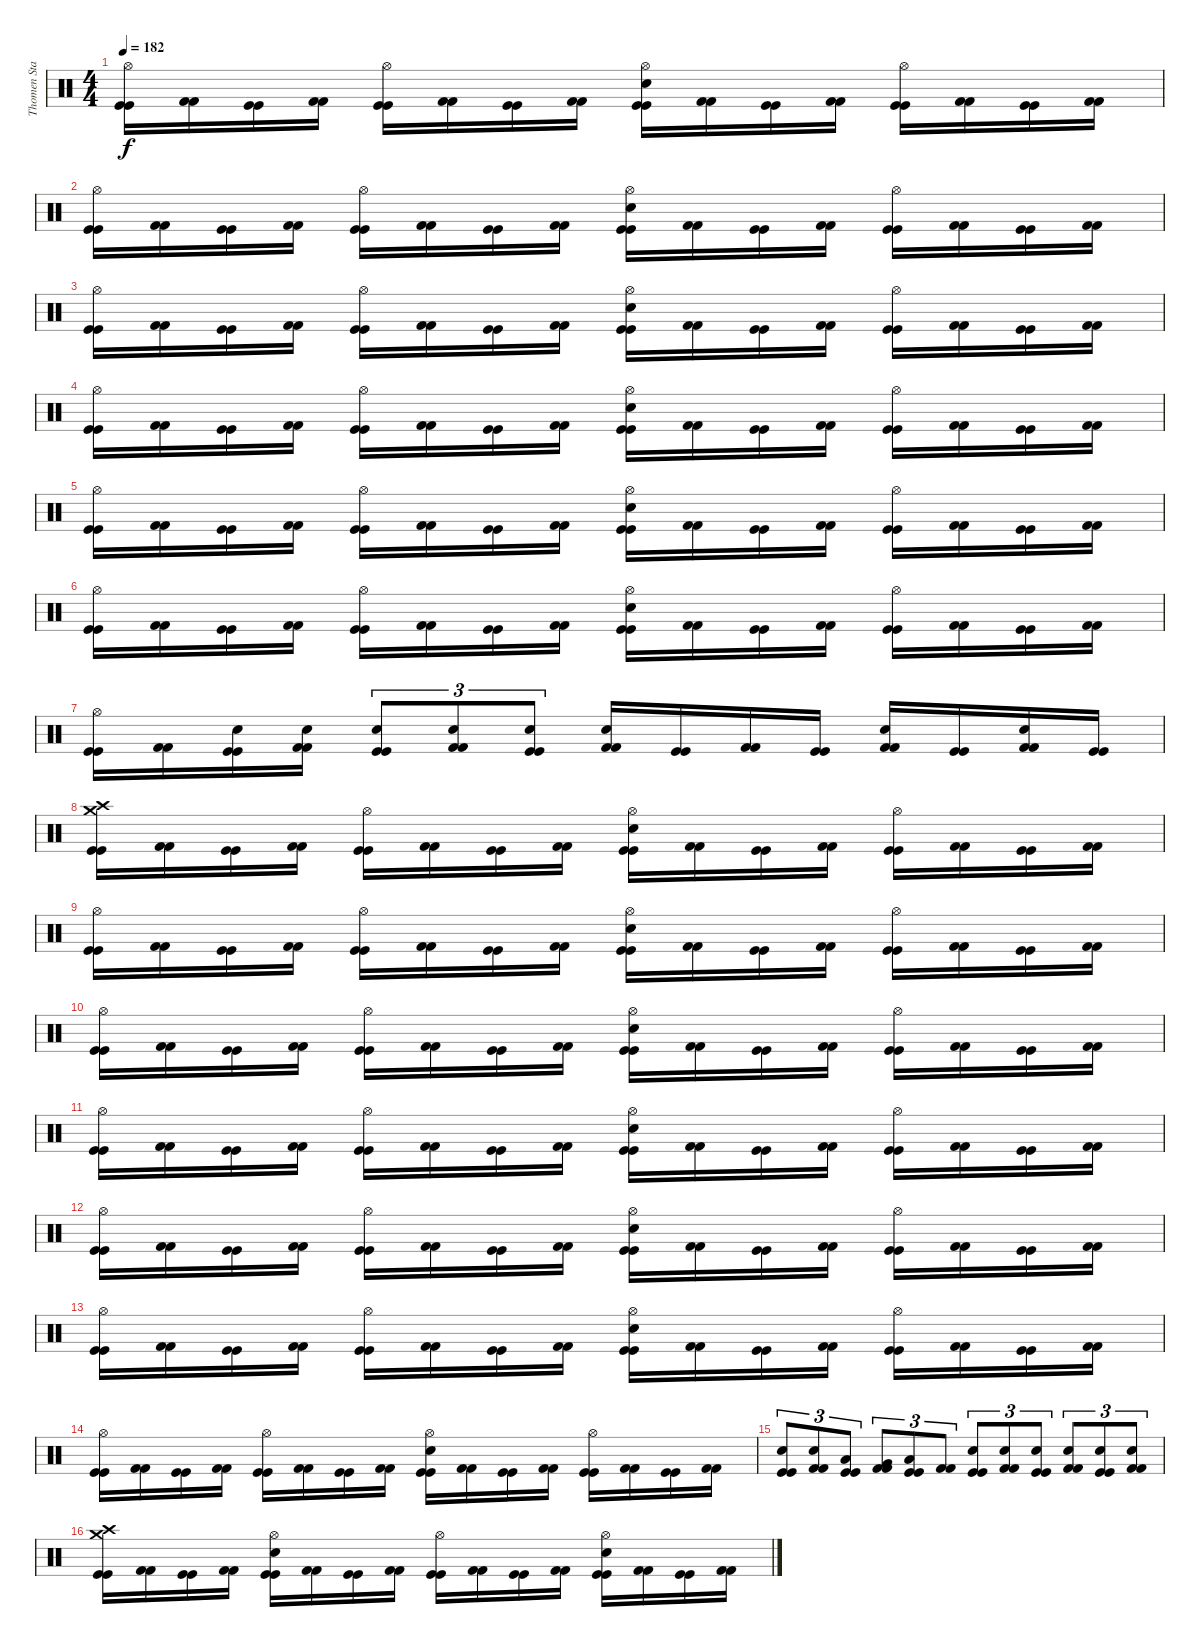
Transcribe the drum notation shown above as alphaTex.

\track ("Thomen Stauch" "Thomen Sta") {instrument percussion}
\staff {score}
\articulation defaults
\ts (4 4)
\tempo 182
\clef neutral
\ks c
("Hi-Hat (open)" "Kick (hit)" "Kick (hit)").16{dy f} ("Kick (hit) 2" "Kick (hit) 2").16 ("Kick (hit)" "Kick (hit)").16 ("Kick (hit) 2" "Kick (hit) 2").16 ("Hi-Hat (open)" "Kick (hit)" "Kick (hit)").16 ("Kick (hit) 2" "Kick (hit) 2").16 ("Kick (hit)" "Kick (hit)").16 ("Kick (hit) 2" "Kick (hit) 2").16 ("Hi-Hat (open)" "Snare (hit) 2" "Kick (hit)" "Kick (hit)").16 ("Kick (hit) 2" "Kick (hit) 2").16 ("Kick (hit)" "Kick (hit)").16 ("Kick (hit) 2" "Kick (hit) 2").16 ("Hi-Hat (open)" "Kick (hit)" "Kick (hit)").16 ("Kick (hit) 2" "Kick (hit) 2").16 ("Kick (hit)" "Kick (hit)").16 ("Kick (hit) 2" "Kick (hit) 2").16 |
("Hi-Hat (open)" "Kick (hit)" "Kick (hit)").16 ("Kick (hit) 2" "Kick (hit) 2").16 ("Kick (hit)" "Kick (hit)").16 ("Kick (hit) 2" "Kick (hit) 2").16 ("Hi-Hat (open)" "Kick (hit)" "Kick (hit)").16 ("Kick (hit) 2" "Kick (hit) 2").16 ("Kick (hit)" "Kick (hit)").16 ("Kick (hit) 2" "Kick (hit) 2").16 ("Hi-Hat (open)" "Snare (hit) 2" "Kick (hit)" "Kick (hit)").16 ("Kick (hit) 2" "Kick (hit) 2").16 ("Kick (hit)" "Kick (hit)").16 ("Kick (hit) 2" "Kick (hit) 2").16 ("Hi-Hat (open)" "Kick (hit)" "Kick (hit)").16 ("Kick (hit) 2" "Kick (hit) 2").16 ("Kick (hit)" "Kick (hit)").16 ("Kick (hit) 2" "Kick (hit) 2").16 |
("Hi-Hat (open)" "Kick (hit)" "Kick (hit)").16 ("Kick (hit) 2" "Kick (hit) 2").16 ("Kick (hit)" "Kick (hit)").16 ("Kick (hit) 2" "Kick (hit) 2").16 ("Hi-Hat (open)" "Kick (hit)" "Kick (hit)").16 ("Kick (hit) 2" "Kick (hit) 2").16 ("Kick (hit)" "Kick (hit)").16 ("Kick (hit) 2" "Kick (hit) 2").16 ("Hi-Hat (open)" "Snare (hit) 2" "Kick (hit)" "Kick (hit)").16 ("Kick (hit) 2" "Kick (hit) 2").16 ("Kick (hit)" "Kick (hit)").16 ("Kick (hit) 2" "Kick (hit) 2").16 ("Hi-Hat (open)" "Kick (hit)" "Kick (hit)").16 ("Kick (hit) 2" "Kick (hit) 2").16 ("Kick (hit)" "Kick (hit)").16 ("Kick (hit) 2" "Kick (hit) 2").16 |
("Hi-Hat (open)" "Kick (hit)" "Kick (hit)").16 ("Kick (hit) 2" "Kick (hit) 2").16 ("Kick (hit)" "Kick (hit)").16 ("Kick (hit) 2" "Kick (hit) 2").16 ("Hi-Hat (open)" "Kick (hit)" "Kick (hit)").16 ("Kick (hit) 2" "Kick (hit) 2").16 ("Kick (hit)" "Kick (hit)").16 ("Kick (hit) 2" "Kick (hit) 2").16 ("Hi-Hat (open)" "Snare (hit) 2" "Kick (hit)" "Kick (hit)").16 ("Kick (hit) 2" "Kick (hit) 2").16 ("Kick (hit)" "Kick (hit)").16 ("Kick (hit) 2" "Kick (hit) 2").16 ("Hi-Hat (open)" "Kick (hit)" "Kick (hit)").16 ("Kick (hit) 2" "Kick (hit) 2").16 ("Kick (hit)" "Kick (hit)").16 ("Kick (hit) 2" "Kick (hit) 2").16 |
("Hi-Hat (open)" "Kick (hit)" "Kick (hit)").16 ("Kick (hit) 2" "Kick (hit) 2").16 ("Kick (hit)" "Kick (hit)").16 ("Kick (hit) 2" "Kick (hit) 2").16 ("Hi-Hat (open)" "Kick (hit)" "Kick (hit)").16 ("Kick (hit) 2" "Kick (hit) 2").16 ("Kick (hit)" "Kick (hit)").16 ("Kick (hit) 2" "Kick (hit) 2").16 ("Hi-Hat (open)" "Snare (hit) 2" "Kick (hit)" "Kick (hit)").16 ("Kick (hit) 2" "Kick (hit) 2").16 ("Kick (hit)" "Kick (hit)").16 ("Kick (hit) 2" "Kick (hit) 2").16 ("Hi-Hat (open)" "Kick (hit)" "Kick (hit)").16 ("Kick (hit) 2" "Kick (hit) 2").16 ("Kick (hit)" "Kick (hit)").16 ("Kick (hit) 2" "Kick (hit) 2").16 |
("Hi-Hat (open)" "Kick (hit)" "Kick (hit)").16 ("Kick (hit) 2" "Kick (hit) 2").16 ("Kick (hit)" "Kick (hit)").16 ("Kick (hit) 2" "Kick (hit) 2").16 ("Hi-Hat (open)" "Kick (hit)" "Kick (hit)").16 ("Kick (hit) 2" "Kick (hit) 2").16 ("Kick (hit)" "Kick (hit)").16 ("Kick (hit) 2" "Kick (hit) 2").16 ("Hi-Hat (open)" "Snare (hit) 2" "Kick (hit)" "Kick (hit)").16 ("Kick (hit) 2" "Kick (hit) 2").16 ("Kick (hit)" "Kick (hit)").16 ("Kick (hit) 2" "Kick (hit) 2").16 ("Hi-Hat (open)" "Kick (hit)" "Kick (hit)").16 ("Kick (hit) 2" "Kick (hit) 2").16 ("Kick (hit)" "Kick (hit)").16 ("Kick (hit) 2" "Kick (hit) 2").16 |
("Hi-Hat (open)" "Kick (hit)" "Kick (hit)").16 ("Kick (hit) 2" "Kick (hit) 2").16 ("Snare (hit) 2" "Kick (hit)" "Kick (hit)").16 ("Snare (hit) 2" "Kick (hit) 2" "Kick (hit) 2").16 ("Snare (hit) 2" "Kick (hit)" "Kick (hit)").8{tu (3 2)} ("Snare (hit) 2" "Kick (hit) 2" "Kick (hit) 2").8{tu (3 2)} ("Snare (hit) 2" "Kick (hit)" "Kick (hit)").8{tu (3 2)} ("Snare (hit) 2" "Kick (hit) 2" "Kick (hit) 2").16 ("Kick (hit)" "Kick (hit)").16 ("Kick (hit) 2" "Kick (hit) 2").16 ("Kick (hit)" "Kick (hit)").16 ("Snare (hit) 2" "Kick (hit) 2" "Kick (hit) 2").16 ("Kick (hit)" "Kick (hit)").16 ("Snare (hit) 2" "Kick (hit) 2" "Kick (hit) 2").16 ("Kick (hit)" "Kick (hit)").16 |
("Crash medium (hit)" "Crash high (hit)" "Kick (hit)" "Kick (hit)").16 ("Kick (hit) 2" "Kick (hit) 2").16 ("Kick (hit)" "Kick (hit)").16 ("Kick (hit) 2" "Kick (hit) 2").16 ("Hi-Hat (open)" "Kick (hit)" "Kick (hit)").16 ("Kick (hit) 2" "Kick (hit) 2").16 ("Kick (hit)" "Kick (hit)").16 ("Kick (hit) 2" "Kick (hit) 2").16 ("Hi-Hat (open)" "Snare (hit) 2" "Kick (hit)" "Kick (hit)").16 ("Kick (hit) 2" "Kick (hit) 2").16 ("Kick (hit)" "Kick (hit)").16 ("Kick (hit) 2" "Kick (hit) 2").16 ("Hi-Hat (open)" "Kick (hit)" "Kick (hit)").16 ("Kick (hit) 2" "Kick (hit) 2").16 ("Kick (hit)" "Kick (hit)").16 ("Kick (hit) 2" "Kick (hit) 2").16 |
("Hi-Hat (open)" "Kick (hit)" "Kick (hit)").16 ("Kick (hit) 2" "Kick (hit) 2").16 ("Kick (hit)" "Kick (hit)").16 ("Kick (hit) 2" "Kick (hit) 2").16 ("Hi-Hat (open)" "Kick (hit)" "Kick (hit)").16 ("Kick (hit) 2" "Kick (hit) 2").16 ("Kick (hit)" "Kick (hit)").16 ("Kick (hit) 2" "Kick (hit) 2").16 ("Hi-Hat (open)" "Snare (hit) 2" "Kick (hit)" "Kick (hit)").16 ("Kick (hit) 2" "Kick (hit) 2").16 ("Kick (hit)" "Kick (hit)").16 ("Kick (hit) 2" "Kick (hit) 2").16 ("Hi-Hat (open)" "Kick (hit)" "Kick (hit)").16 ("Kick (hit) 2" "Kick (hit) 2").16 ("Kick (hit)" "Kick (hit)").16 ("Kick (hit) 2" "Kick (hit) 2").16 |
("Hi-Hat (open)" "Kick (hit)" "Kick (hit)").16 ("Kick (hit) 2" "Kick (hit) 2").16 ("Kick (hit)" "Kick (hit)").16 ("Kick (hit) 2" "Kick (hit) 2").16 ("Hi-Hat (open)" "Kick (hit)" "Kick (hit)").16 ("Kick (hit) 2" "Kick (hit) 2").16 ("Kick (hit)" "Kick (hit)").16 ("Kick (hit) 2" "Kick (hit) 2").16 ("Hi-Hat (open)" "Snare (hit) 2" "Kick (hit)" "Kick (hit)").16 ("Kick (hit) 2" "Kick (hit) 2").16 ("Kick (hit)" "Kick (hit)").16 ("Kick (hit) 2" "Kick (hit) 2").16 ("Hi-Hat (open)" "Kick (hit)" "Kick (hit)").16 ("Kick (hit) 2" "Kick (hit) 2").16 ("Kick (hit)" "Kick (hit)").16 ("Kick (hit) 2" "Kick (hit) 2").16 |
("Hi-Hat (open)" "Kick (hit)" "Kick (hit)").16 ("Kick (hit) 2" "Kick (hit) 2").16 ("Kick (hit)" "Kick (hit)").16 ("Kick (hit) 2" "Kick (hit) 2").16 ("Hi-Hat (open)" "Kick (hit)" "Kick (hit)").16 ("Kick (hit) 2" "Kick (hit) 2").16 ("Kick (hit)" "Kick (hit)").16 ("Kick (hit) 2" "Kick (hit) 2").16 ("Hi-Hat (open)" "Snare (hit) 2" "Kick (hit)" "Kick (hit)").16 ("Kick (hit) 2" "Kick (hit) 2").16 ("Kick (hit)" "Kick (hit)").16 ("Kick (hit) 2" "Kick (hit) 2").16 ("Hi-Hat (open)" "Kick (hit)" "Kick (hit)").16 ("Kick (hit) 2" "Kick (hit) 2").16 ("Kick (hit)" "Kick (hit)").16 ("Kick (hit) 2" "Kick (hit) 2").16 |
("Hi-Hat (open)" "Kick (hit)" "Kick (hit)").16 ("Kick (hit) 2" "Kick (hit) 2").16 ("Kick (hit)" "Kick (hit)").16 ("Kick (hit) 2" "Kick (hit) 2").16 ("Hi-Hat (open)" "Kick (hit)" "Kick (hit)").16 ("Kick (hit) 2" "Kick (hit) 2").16 ("Kick (hit)" "Kick (hit)").16 ("Kick (hit) 2" "Kick (hit) 2").16 ("Hi-Hat (open)" "Snare (hit) 2" "Kick (hit)" "Kick (hit)").16 ("Kick (hit) 2" "Kick (hit) 2").16 ("Kick (hit)" "Kick (hit)").16 ("Kick (hit) 2" "Kick (hit) 2").16 ("Hi-Hat (open)" "Kick (hit)" "Kick (hit)").16 ("Kick (hit) 2" "Kick (hit) 2").16 ("Kick (hit)" "Kick (hit)").16 ("Kick (hit) 2" "Kick (hit) 2").16 |
("Hi-Hat (open)" "Kick (hit)" "Kick (hit)").16 ("Kick (hit) 2" "Kick (hit) 2").16 ("Kick (hit)" "Kick (hit)").16 ("Kick (hit) 2" "Kick (hit) 2").16 ("Hi-Hat (open)" "Kick (hit)" "Kick (hit)").16 ("Kick (hit) 2" "Kick (hit) 2").16 ("Kick (hit)" "Kick (hit)").16 ("Kick (hit) 2" "Kick (hit) 2").16 ("Hi-Hat (open)" "Snare (hit) 2" "Kick (hit)" "Kick (hit)").16 ("Kick (hit) 2" "Kick (hit) 2").16 ("Kick (hit)" "Kick (hit)").16 ("Kick (hit) 2" "Kick (hit) 2").16 ("Hi-Hat (open)" "Kick (hit)" "Kick (hit)").16 ("Kick (hit) 2" "Kick (hit) 2").16 ("Kick (hit)" "Kick (hit)").16 ("Kick (hit) 2" "Kick (hit) 2").16 |
("Hi-Hat (open)" "Kick (hit)" "Kick (hit)").16 ("Kick (hit) 2" "Kick (hit) 2").16 ("Kick (hit)" "Kick (hit)").16 ("Kick (hit) 2" "Kick (hit) 2").16 ("Hi-Hat (open)" "Kick (hit)" "Kick (hit)").16 ("Kick (hit) 2" "Kick (hit) 2").16 ("Kick (hit)" "Kick (hit)").16 ("Kick (hit) 2" "Kick (hit) 2").16 ("Hi-Hat (open)" "Snare (hit) 2" "Kick (hit)" "Kick (hit)").16 ("Kick (hit) 2" "Kick (hit) 2").16 ("Kick (hit)" "Kick (hit)").16 ("Kick (hit) 2" "Kick (hit) 2").16 ("Hi-Hat (open)" "Kick (hit)" "Kick (hit)").16 ("Kick (hit) 2" "Kick (hit) 2").16 ("Kick (hit)" "Kick (hit)").16 ("Kick (hit) 2" "Kick (hit) 2").16 |
("Snare (hit) 2" "Kick (hit)" "Kick (hit)").8{tu (3 2)} ("Snare (hit) 2" "Kick (hit) 2" "Kick (hit) 2").8{tu (3 2)} ("Low Tom (hit)" "Kick (hit)" "Kick (hit)").8{tu (3 2)} ("Very Low Tom (hit)" "Kick (hit) 2" "Kick (hit) 2").8{tu (3 2)} ("Low Floor Tom (hit)" "Kick (hit)" "Kick (hit)").8{tu (3 2)} ("Kick (hit) 2" "Kick (hit) 2").8{tu (3 2)} ("Snare (hit) 2" "Kick (hit)" "Kick (hit)").8{tu (3 2)} ("Snare (hit) 2" "Kick (hit) 2" "Kick (hit) 2").8{tu (3 2)} ("Snare (hit) 2" "Kick (hit)" "Kick (hit)").8{tu (3 2)} ("Snare (hit) 2" "Kick (hit) 2" "Kick (hit) 2").8{tu (3 2)} ("Snare (hit) 2" "Kick (hit)" "Kick (hit)").8{tu (3 2)} ("Snare (hit) 2" "Kick (hit) 2" "Kick (hit) 2").8{tu (3 2)} |
("Crash medium (hit)" "Crash high (hit)" "Kick (hit)" "Kick (hit)").16 ("Kick (hit) 2" "Kick (hit) 2").16 ("Kick (hit)" "Kick (hit)").16 ("Kick (hit) 2" "Kick (hit) 2").16 ("Hi-Hat (open)" "Snare (hit) 2" "Kick (hit)" "Kick (hit)").16 ("Kick (hit) 2" "Kick (hit) 2").16 ("Kick (hit)" "Kick (hit)").16 ("Kick (hit) 2" "Kick (hit) 2").16 ("Hi-Hat (open)" "Kick (hit)" "Kick (hit)").16 ("Kick (hit) 2" "Kick (hit) 2").16 ("Kick (hit)" "Kick (hit)").16 ("Kick (hit) 2" "Kick (hit) 2").16 ("Hi-Hat (open)" "Snare (hit) 2" "Kick (hit)" "Kick (hit)").16 ("Kick (hit) 2" "Kick (hit) 2").16 ("Kick (hit)" "Kick (hit)").16 ("Kick (hit) 2" "Kick (hit) 2").16
